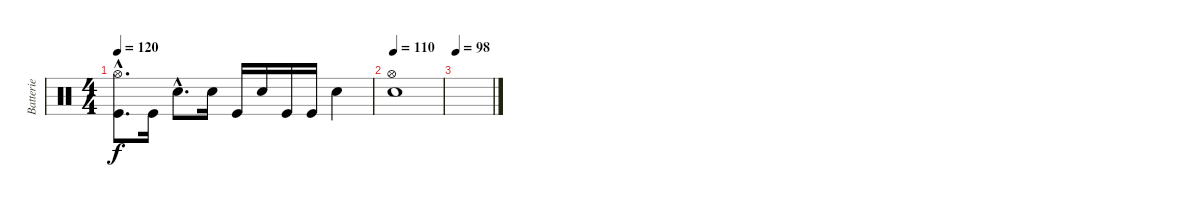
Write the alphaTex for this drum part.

\track ("Batterie" "Batterie") {instrument percussion}
\staff {score}
\articulation defaults
\ts (4 4)
\tempo 120
\clef neutral
\ks c
("Hi-Hat (open)"{hac} "Kick (hit)"{hac}).8{d dy f} "Kick (hit)".16 "Snare (hit) 2"{hac}.8{d} "Snare (hit) 2".16 "Kick (hit)".16 "Snare (hit) 2".16 "Kick (hit)".16 "Kick (hit)".16 "Snare (hit) 2".4 |
\tempo 110
("Hi-Hat (open)" "Snare (hit) 2").1 |
\tempo 98
